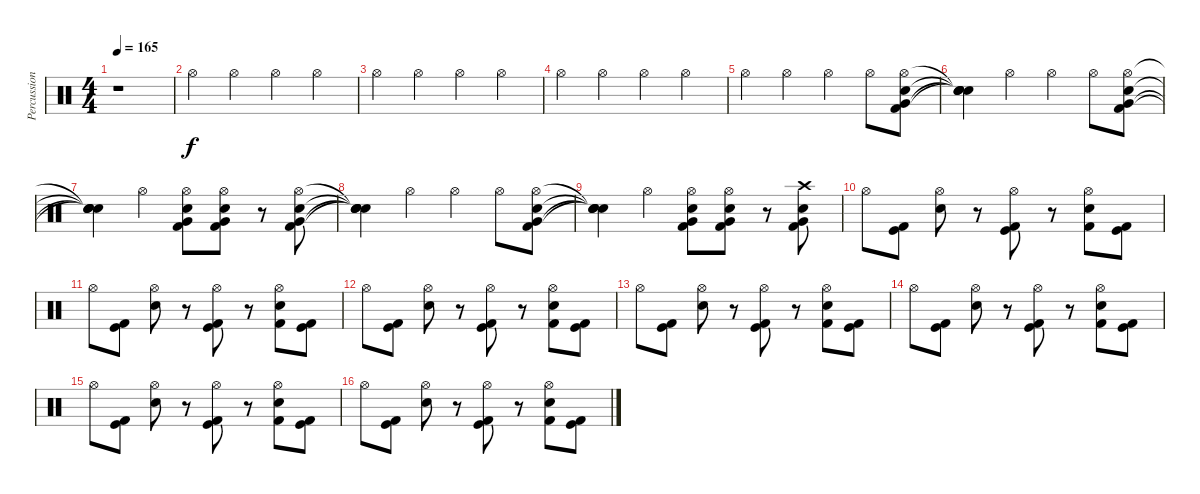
\track ("Percussions" "Percussion") {instrument percussion}
\staff {score}
\articulation defaults
\ts (4 4)
\tempo 165
\clef neutral
\ks c
r.1{dy f} |
"Hi-Hat (open)".4 "Hi-Hat (open)".4 "Hi-Hat (open)".4 "Hi-Hat (open)".4 |
"Hi-Hat (open)".4 "Hi-Hat (open)".4 "Hi-Hat (open)".4 "Hi-Hat (open)".4 |
"Hi-Hat (open)".4 "Hi-Hat (open)".4 "Hi-Hat (open)".4 "Hi-Hat (open)".4 |
"Hi-Hat (open)".4 "Hi-Hat (open)".4 "Hi-Hat (open)".4 "Hi-Hat (open)".8 ("Hi-Hat (open)" "Snare (hit) 2" "Very Low Tom (hit)" "Kick (hit) 2").8 |
("Snare (hit)"{t} "Snare (hit)"{t} "Snare (hit)"{t} "Snare (hit)"{t}).4 "Hi-Hat (open)".4 "Hi-Hat (open)".4 "Hi-Hat (open)".8 ("Hi-Hat (open)" "Snare (hit) 2" "Very Low Tom (hit)" "Kick (hit) 2").8 |
("Snare (hit)"{t} "Snare (hit)"{t} "Snare (hit)"{t} "Snare (hit)"{t}).4 "Hi-Hat (open)".4 ("Hi-Hat (open)" "Snare (hit) 2" "Very Low Tom (hit)" "Kick (hit) 2").8 ("Hi-Hat (open)" "Snare (hit) 2" "Very Low Tom (hit)" "Kick (hit) 2").8 r.8 ("Hi-Hat (open)" "Snare (hit) 2" "Very Low Tom (hit)" "Kick (hit) 2").8 |
("Snare (hit)"{t} "Snare (hit)"{t} "Snare (hit)"{t} "Snare (hit)"{t}).4 "Hi-Hat (open)".4 "Hi-Hat (open)".4 "Hi-Hat (open)".8 ("Hi-Hat (open)" "Snare (hit) 2" "Very Low Tom (hit)" "Kick (hit) 2").8 |
("Snare (hit)"{t} "Snare (hit)"{t} "Snare (hit)"{t} "Snare (hit)"{t}).4 "Hi-Hat (open)".4 ("Hi-Hat (open)" "Snare (hit) 2" "Very Low Tom (hit)" "Kick (hit) 2").8 ("Hi-Hat (open)" "Snare (hit) 2" "Very Low Tom (hit)" "Kick (hit) 2").8 r.8 ("Crash high (hit)" "Snare (hit) 2" "Very Low Tom (hit)" "Kick (hit) 2").8 |
"Hi-Hat (open)".8 ("Kick (hit) 2" "Kick (hit)").8 ("Snare (hit) 2" "Hi-Hat (open)").8 r.8 ("Kick (hit) 2" "Kick (hit)" "Hi-Hat (open)").8 r.8 ("Kick (hit) 2" "Snare (hit) 2" "Hi-Hat (open)").8 ("Kick (hit) 2" "Kick (hit)").8 |
"Hi-Hat (open)".8 ("Kick (hit) 2" "Kick (hit)").8 ("Snare (hit) 2" "Hi-Hat (open)").8 r.8 ("Kick (hit) 2" "Kick (hit)" "Hi-Hat (open)").8 r.8 ("Kick (hit) 2" "Snare (hit) 2" "Hi-Hat (open)").8 ("Kick (hit) 2" "Kick (hit)").8 |
"Hi-Hat (open)".8 ("Kick (hit) 2" "Kick (hit)").8 ("Snare (hit) 2" "Hi-Hat (open)").8 r.8 ("Kick (hit) 2" "Kick (hit)" "Hi-Hat (open)").8 r.8 ("Kick (hit) 2" "Snare (hit) 2" "Hi-Hat (open)").8 ("Kick (hit) 2" "Kick (hit)").8 |
"Hi-Hat (open)".8 ("Kick (hit) 2" "Kick (hit)").8 ("Snare (hit) 2" "Hi-Hat (open)").8 r.8 ("Kick (hit) 2" "Kick (hit)" "Hi-Hat (open)").8 r.8 ("Kick (hit) 2" "Snare (hit) 2" "Hi-Hat (open)").8 ("Kick (hit) 2" "Kick (hit)").8 |
"Hi-Hat (open)".8 ("Kick (hit) 2" "Kick (hit)").8 ("Snare (hit) 2" "Hi-Hat (open)").8 r.8 ("Kick (hit) 2" "Kick (hit)" "Hi-Hat (open)").8 r.8 ("Kick (hit) 2" "Snare (hit) 2" "Hi-Hat (open)").8 ("Kick (hit) 2" "Kick (hit)").8 |
"Hi-Hat (open)".8 ("Kick (hit) 2" "Kick (hit)").8 ("Snare (hit) 2" "Hi-Hat (open)").8 r.8 ("Kick (hit) 2" "Kick (hit)" "Hi-Hat (open)").8 r.8 ("Kick (hit) 2" "Snare (hit) 2" "Hi-Hat (open)").8 ("Kick (hit) 2" "Kick (hit)").8 |
"Hi-Hat (open)".8 ("Kick (hit) 2" "Kick (hit)").8 ("Snare (hit) 2" "Hi-Hat (open)").8 r.8 ("Kick (hit) 2" "Kick (hit)" "Hi-Hat (open)").8 r.8 ("Kick (hit) 2" "Snare (hit) 2" "Hi-Hat (open)").8 ("Kick (hit) 2" "Kick (hit)").8
